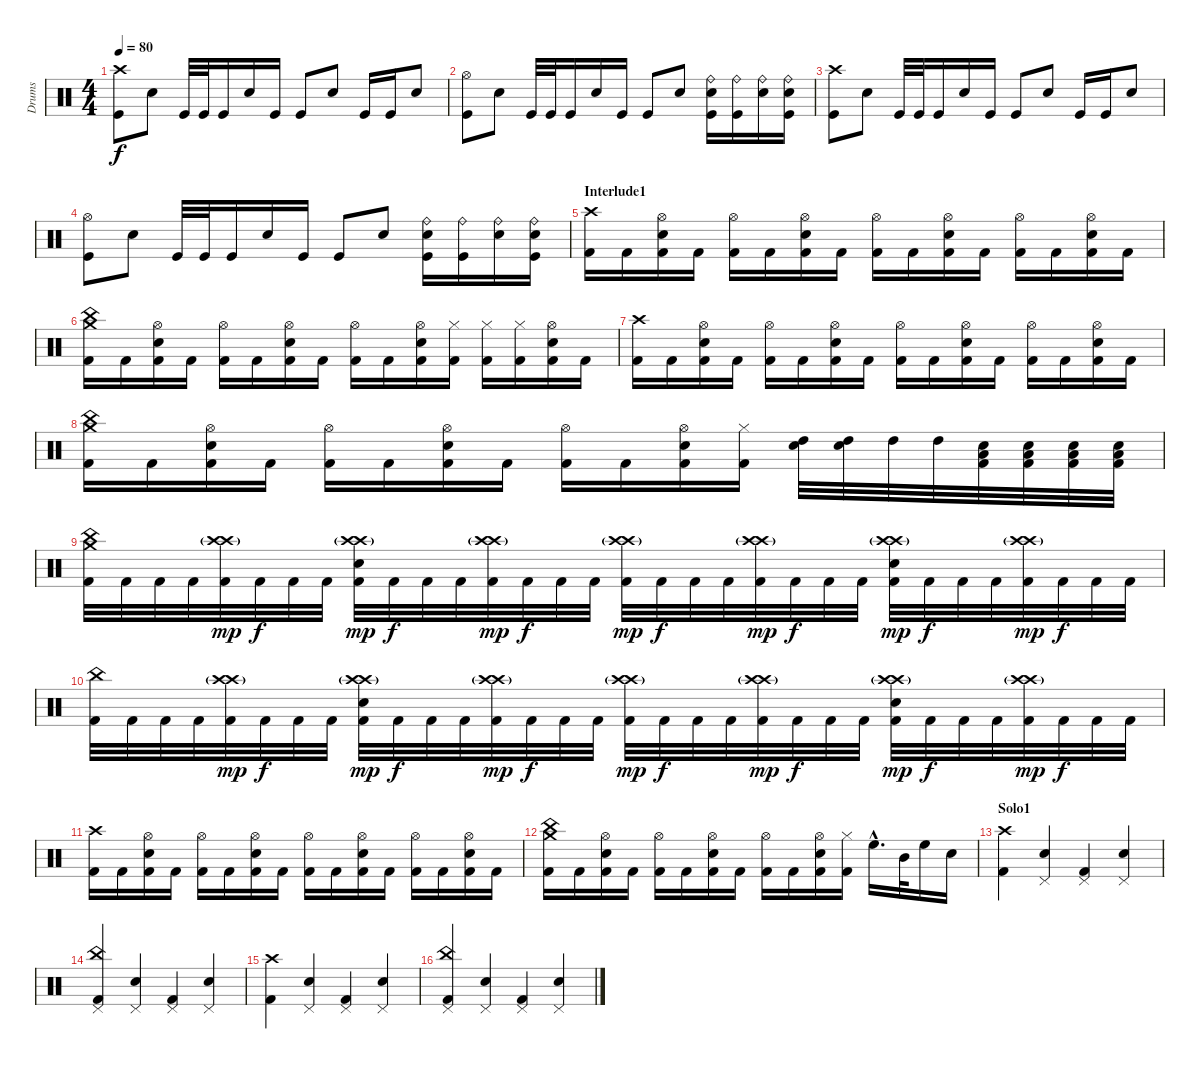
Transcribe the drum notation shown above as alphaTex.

\track ("Drums" "Drums") {instrument percussion}
\staff {score}
\articulation defaults
\ts (4 4)
\tempo 80
\clef neutral
\ks c
("Crash high (hit)" "Kick (hit)").8{dy f} "Electric Snare (hit)".8 "Kick (hit)".32 "Kick (hit)".32 "Kick (hit)".16 "Electric Snare (hit)".16 "Kick (hit)".16 "Kick (hit)".8 "Electric Snare (hit)".8 "Kick (hit)".16 "Kick (hit)".16 "Electric Snare (hit)".8 |
("Hi-Hat (open)" "Kick (hit)").8 "Electric Snare (hit)".8 "Kick (hit)".32 "Kick (hit)".32 "Kick (hit)".16 "Electric Snare (hit)".16 "Kick (hit)".16 "Kick (hit)".8 "Electric Snare (hit)".8 ("Ride (bell)" "Electric Snare (hit)" "Kick (hit)").16 ("Ride (bell)" "Kick (hit)").16 ("Ride (bell)" "Electric Snare (hit)").16 ("Ride (bell)" "Electric Snare (hit)" "Kick (hit)").16 |
("Crash high (hit)" "Kick (hit)").8 "Electric Snare (hit)".8 "Kick (hit)".32 "Kick (hit)".32 "Kick (hit)".16 "Electric Snare (hit)".16 "Kick (hit)".16 "Kick (hit)".8 "Electric Snare (hit)".8 "Kick (hit)".16 "Kick (hit)".16 "Electric Snare (hit)".8 |
("Hi-Hat (open)" "Kick (hit)").8 "Electric Snare (hit)".8 "Kick (hit)".32 "Kick (hit)".32 "Kick (hit)".16 "Electric Snare (hit)".16 "Kick (hit)".16 "Kick (hit)".8 "Electric Snare (hit)".8 ("Ride (bell)" "Electric Snare (hit)" "Kick (hit)").16 ("Ride (bell)" "Kick (hit)").16 ("Ride (bell)" "Electric Snare (hit)").16 ("Ride (bell)" "Electric Snare (hit)" "Kick (hit)").16 |
\section ("" "Interlude1")
("Crash high (hit)" "Kick (hit) 2").16 "Kick (hit) 2".16 ("Hi-Hat (open)" "Electric Snare (hit)" "Kick (hit) 2").16 "Kick (hit) 2".16 ("Hi-Hat (open)" "Kick (hit) 2").16 "Kick (hit) 2".16 ("Hi-Hat (open)" "Electric Snare (hit)" "Kick (hit) 2").16 "Kick (hit) 2".16 ("Hi-Hat (open)" "Kick (hit) 2").16 "Kick (hit) 2".16 ("Hi-Hat (open)" "Electric Snare (hit)" "Kick (hit) 2").16 "Kick (hit) 2".16 ("Hi-Hat (open)" "Kick (hit) 2").16 "Kick (hit) 2".16 ("Hi-Hat (open)" "Electric Snare (hit)" "Kick (hit) 2").16 "Kick (hit) 2".16 |
("Crash medium (hit)" "China (hit)" "Kick (hit) 2").16 "Kick (hit) 2".16 ("Hi-Hat (open)" "Electric Snare (hit)" "Kick (hit) 2").16 "Kick (hit) 2".16 ("Hi-Hat (open)" "Kick (hit) 2").16 "Kick (hit) 2".16 ("Hi-Hat (open)" "Electric Snare (hit)" "Kick (hit) 2").16 "Kick (hit) 2".16 ("Hi-Hat (open)" "Kick (hit) 2").16 "Kick (hit) 2".16 ("Hi-Hat (open)" "Electric Snare (hit)" "Kick (hit) 2").16 ("Hi-Hat (closed)" "Kick (hit) 2").16 ("Hi-Hat (closed)" "Kick (hit) 2").16 ("Hi-Hat (closed)" "Kick (hit) 2").16 ("Hi-Hat (open)" "Electric Snare (hit)" "Kick (hit) 2").16 "Kick (hit) 2".16 |
("Crash high (hit)" "Kick (hit) 2").16 "Kick (hit) 2".16 ("Hi-Hat (open)" "Electric Snare (hit)" "Kick (hit) 2").16 "Kick (hit) 2".16 ("Hi-Hat (open)" "Kick (hit) 2").16 "Kick (hit) 2".16 ("Hi-Hat (open)" "Electric Snare (hit)" "Kick (hit) 2").16 "Kick (hit) 2".16 ("Hi-Hat (open)" "Kick (hit) 2").16 "Kick (hit) 2".16 ("Hi-Hat (open)" "Electric Snare (hit)" "Kick (hit) 2").16 "Kick (hit) 2".16 ("Hi-Hat (open)" "Kick (hit) 2").16 "Kick (hit) 2".16 ("Hi-Hat (open)" "Electric Snare (hit)" "Kick (hit) 2").16 "Kick (hit) 2".16 |
("Crash medium (hit)" "China (hit)" "Kick (hit) 2").16 "Kick (hit) 2".16 ("Hi-Hat (open)" "Electric Snare (hit)" "Kick (hit) 2").16 "Kick (hit) 2".16 ("Hi-Hat (open)" "Kick (hit) 2").16 "Kick (hit) 2".16 ("Hi-Hat (open)" "Electric Snare (hit)" "Kick (hit) 2").16 "Kick (hit) 2".16 ("Hi-Hat (open)" "Kick (hit) 2").16 "Kick (hit) 2".16 ("Hi-Hat (open)" "Electric Snare (hit)" "Kick (hit) 2").16 ("Hi-Hat (closed)" "Kick (hit) 2").16 ("Electric Snare (hit)" "High Tom (hit)").32 ("Electric Snare (hit)" "High Tom (hit)").32 "High Tom (hit)".32 "High Tom (hit)".32 ("Electric Snare (hit)" "Low Tom (hit)" "Kick (hit) 2").32 ("Electric Snare (hit)" "Low Tom (hit)" "Kick (hit) 2").32 ("Electric Snare (hit)" "Low Tom (hit)" "Kick (hit) 2").32 ("Electric Snare (hit)" "Low Tom (hit)" "Kick (hit) 2").32 |
("China (hit)" "Crash medium (hit)" "Kick (hit) 2").32 "Kick (hit) 2".32 "Kick (hit) 2".32 "Kick (hit) 2".32 ("Crash high (hit)"{g} "Crash high (hit)"{g} "Kick (hit) 2").32{dy mp} "Kick (hit) 2".32{dy f} "Kick (hit) 2".32 "Kick (hit) 2".32 ("Crash high (hit)"{g} "Crash high (hit)"{g} "Electric Snare (hit)" "Kick (hit) 2").32{dy mp} "Kick (hit) 2".32{dy f} "Kick (hit) 2".32 "Kick (hit) 2".32 ("Crash high (hit)"{g} "Crash high (hit)"{g} "Kick (hit) 2").32{dy mp} "Kick (hit) 2".32{dy f} "Kick (hit) 2".32 "Kick (hit) 2".32 ("Crash high (hit)"{g} "Crash high (hit)"{g} "Kick (hit) 2").32{dy mp} "Kick (hit) 2".32{dy f} "Kick (hit) 2".32 "Kick (hit) 2".32 ("Crash high (hit)"{g} "Crash high (hit)"{g} "Kick (hit) 2").32{dy mp} "Kick (hit) 2".32{dy f} "Kick (hit) 2".32 "Kick (hit) 2".32 ("Crash high (hit)"{g} "Crash high (hit)"{g} "Electric Snare (hit)" "Kick (hit) 2").32{dy mp} "Kick (hit) 2".32{dy f} "Kick (hit) 2".32 "Kick (hit) 2".32 ("Crash high (hit)"{g} "Crash high (hit)"{g} "Kick (hit) 2").32{dy mp} "Kick (hit) 2".32{dy f} "Kick (hit) 2".32 "Kick (hit) 2".32 |
("China (hit)" "Kick (hit) 2").32 "Kick (hit) 2".32 "Kick (hit) 2".32 "Kick (hit) 2".32 ("Crash high (hit)"{g} "Crash high (hit)"{g} "Kick (hit) 2").32{dy mp} "Kick (hit) 2".32{dy f} "Kick (hit) 2".32 "Kick (hit) 2".32 ("Crash high (hit)"{g} "Crash high (hit)"{g} "Electric Snare (hit)" "Kick (hit) 2").32{dy mp} "Kick (hit) 2".32{dy f} "Kick (hit) 2".32 "Kick (hit) 2".32 ("Crash high (hit)"{g} "Crash high (hit)"{g} "Kick (hit) 2").32{dy mp} "Kick (hit) 2".32{dy f} "Kick (hit) 2".32 "Kick (hit) 2".32 ("Crash high (hit)"{g} "Crash high (hit)"{g} "Kick (hit) 2").32{dy mp} "Kick (hit) 2".32{dy f} "Kick (hit) 2".32 "Kick (hit) 2".32 ("Crash high (hit)"{g} "Crash high (hit)"{g} "Kick (hit) 2").32{dy mp} "Kick (hit) 2".32{dy f} "Kick (hit) 2".32 "Kick (hit) 2".32 ("Crash high (hit)"{g} "Crash high (hit)"{g} "Electric Snare (hit)" "Kick (hit) 2").32{dy mp} "Kick (hit) 2".32{dy f} "Kick (hit) 2".32 "Kick (hit) 2".32 ("Crash high (hit)"{g} "Crash high (hit)"{g} "Kick (hit) 2").32{dy mp} "Kick (hit) 2".32{dy f} "Kick (hit) 2".32 "Kick (hit) 2".32 |
("Crash high (hit)" "Kick (hit) 2").16 "Kick (hit) 2".16 ("Hi-Hat (open)" "Electric Snare (hit)" "Kick (hit) 2").16 "Kick (hit) 2".16 ("Hi-Hat (open)" "Kick (hit) 2").16 "Kick (hit) 2".16 ("Hi-Hat (open)" "Electric Snare (hit)" "Kick (hit) 2").16 "Kick (hit) 2".16 ("Hi-Hat (open)" "Kick (hit) 2").16 "Kick (hit) 2".16 ("Hi-Hat (open)" "Electric Snare (hit)" "Kick (hit) 2").16 "Kick (hit) 2".16 ("Hi-Hat (open)" "Kick (hit) 2").16 "Kick (hit) 2".16 ("Hi-Hat (open)" "Electric Snare (hit)" "Kick (hit) 2").16 "Kick (hit) 2".16 |
("Crash medium (hit)" "China (hit)" "Kick (hit) 2").16 "Kick (hit) 2".16 ("Hi-Hat (open)" "Electric Snare (hit)" "Kick (hit) 2").16 "Kick (hit) 2".16 ("Hi-Hat (open)" "Kick (hit) 2").16 "Kick (hit) 2".16 ("Hi-Hat (open)" "Electric Snare (hit)" "Kick (hit) 2").16 "Kick (hit) 2".16 ("Hi-Hat (open)" "Kick (hit) 2").16 "Kick (hit) 2".16 ("Hi-Hat (open)" "Electric Snare (hit)" "Kick (hit) 2").16 ("Hi-Hat (closed)" "Kick (hit) 2").16 "High Floor Tom (hit)"{hac}.16{d} "Mid Tom (hit)".32 "High Floor Tom (hit)".16 "Electric Snare (hit)".16 |
\section ("" "Solo1")
("Crash high (hit)" "Kick (hit) 2").4 ("Pedal Hi-Hat (hit)" "Electric Snare (hit)").4 ("Pedal Hi-Hat (hit)" "Kick (hit) 2").4 ("Pedal Hi-Hat (hit)" "Electric Snare (hit)").4 |
("Pedal Hi-Hat (hit)" "China (hit)" "Kick (hit) 2").4 ("Pedal Hi-Hat (hit)" "Electric Snare (hit)").4 ("Pedal Hi-Hat (hit)" "Kick (hit) 2").4 ("Pedal Hi-Hat (hit)" "Electric Snare (hit)").4 |
("Crash high (hit)" "Kick (hit) 2").4 ("Pedal Hi-Hat (hit)" "Electric Snare (hit)").4 ("Pedal Hi-Hat (hit)" "Kick (hit) 2").4 ("Pedal Hi-Hat (hit)" "Electric Snare (hit)").4 |
("Pedal Hi-Hat (hit)" "China (hit)" "Kick (hit) 2").4 ("Pedal Hi-Hat (hit)" "Electric Snare (hit)").4 ("Pedal Hi-Hat (hit)" "Kick (hit) 2").4 ("Pedal Hi-Hat (hit)" "Electric Snare (hit)").4
